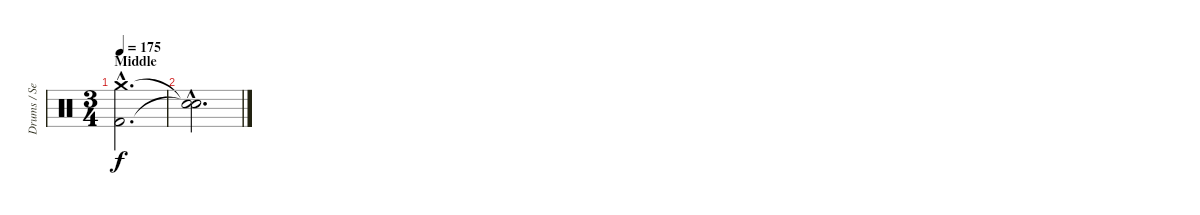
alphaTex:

\track ("Drums / Sean" "Drums / Se") {instrument percussion}
\staff {score}
\articulation defaults
\ts (3 4)
\section ("" "Middle")
\tempo 175
\clef neutral
\ks c
("Crash medium (hit)"{hac} "Kick (hit) 2"{hac}).2{d dy f} |
("Snare (hit)"{hac t} "Snare (hit)"{hac t}).2{d}
